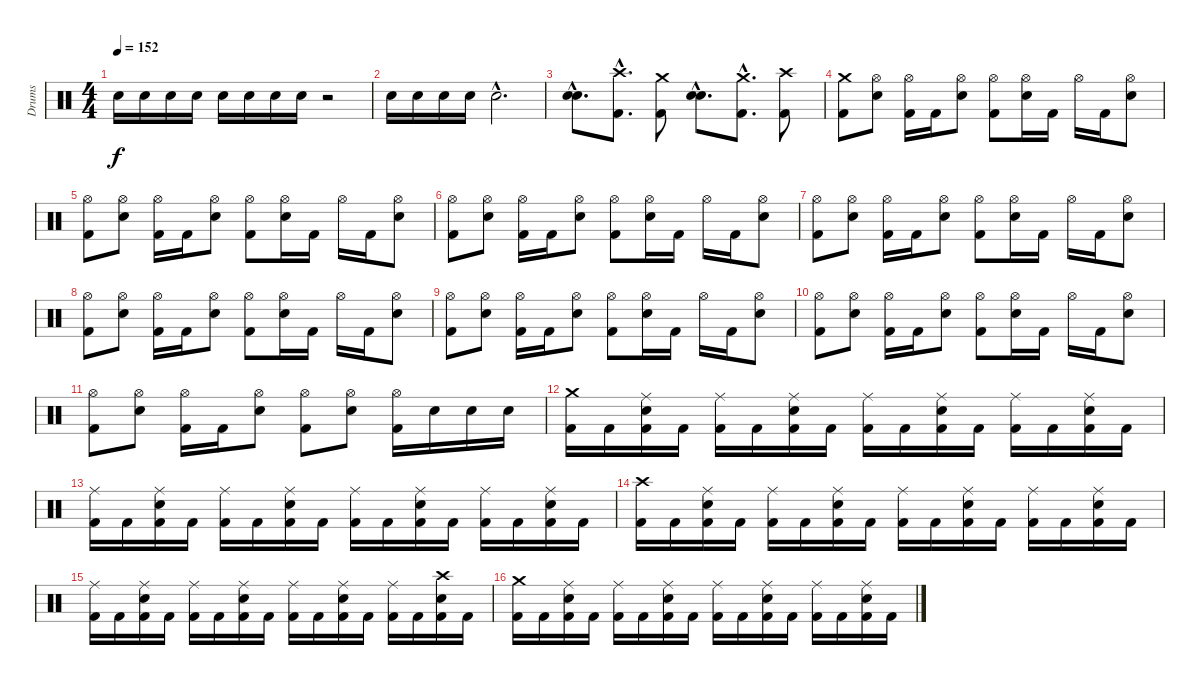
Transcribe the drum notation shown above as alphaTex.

\track ("Drums" "Drums") {instrument percussion}
\staff {score}
\articulation defaults
\ts (4 4)
\tempo 152
\clef neutral
\ks c "Snare (hit) 2".16{dy f} "Snare (hit) 2".16 "Snare (hit) 2".16 "Snare (hit) 2".16 "Snare (hit) 2".16 "Snare (hit) 2".16 "Snare (hit) 2".16 "Snare (hit) 2".16
r.2 |
"Snare (hit) 2".16 "Snare (hit) 2".16 "Snare (hit) 2".16 "Snare (hit) 2".16 "Snare (hit) 2"{hac}.2{d} |
("Snare (hit) 2"{hac} "Snare (hit) 2"{hac}).8{d bu 240} ("Crash high (hit)"{hac} "Kick (hit) 2"{hac}).8{d} ("Crash medium (hit)" "Kick (hit) 2").8 ("Snare (hit) 2"{hac} "Snare (hit) 2"{hac}).8{d bu 240} ("Crash medium (hit)"{hac} "Kick (hit) 2"{hac}).8{d} ("Crash high (hit)" "Kick (hit) 2").8 |
("Crash medium (hit)" "Kick (hit) 2").8 ("Hi-Hat (open)" "Snare (hit) 2").8 ("Hi-Hat (open)" "Kick (hit) 2").16 "Kick (hit) 2".16 ("Hi-Hat (open)" "Snare (hit) 2").8 ("Hi-Hat (open)" "Kick (hit) 2").8 ("Hi-Hat (open)" "Snare (hit) 2").16 "Kick (hit) 2".16 "Hi-Hat (open)".16 "Kick (hit) 2".16 ("Hi-Hat (open)" "Snare (hit) 2").8 |
("Hi-Hat (open)" "Kick (hit) 2").8 ("Hi-Hat (open)" "Snare (hit) 2").8 ("Hi-Hat (open)" "Kick (hit) 2").16 "Kick (hit) 2".16 ("Hi-Hat (open)" "Snare (hit) 2").8 ("Hi-Hat (open)" "Kick (hit) 2").8 ("Hi-Hat (open)" "Snare (hit) 2").16 "Kick (hit) 2".16 "Hi-Hat (open)".16 "Kick (hit) 2".16 ("Hi-Hat (open)" "Snare (hit) 2").8 |
("Hi-Hat (open)" "Kick (hit) 2").8 ("Hi-Hat (open)" "Snare (hit) 2").8 ("Hi-Hat (open)" "Kick (hit) 2").16 "Kick (hit) 2".16 ("Hi-Hat (open)" "Snare (hit) 2").8 ("Hi-Hat (open)" "Kick (hit) 2").8 ("Hi-Hat (open)" "Snare (hit) 2").16 "Kick (hit) 2".16 "Hi-Hat (open)".16 "Kick (hit) 2".16 ("Hi-Hat (open)" "Snare (hit) 2").8 |
("Hi-Hat (open)" "Kick (hit) 2").8 ("Hi-Hat (open)" "Snare (hit) 2").8 ("Hi-Hat (open)" "Kick (hit) 2").16 "Kick (hit) 2".16 ("Hi-Hat (open)" "Snare (hit) 2").8 ("Hi-Hat (open)" "Kick (hit) 2").8 ("Hi-Hat (open)" "Snare (hit) 2").16 "Kick (hit) 2".16 "Hi-Hat (open)".16 "Kick (hit) 2".16 ("Hi-Hat (open)" "Snare (hit) 2").8 |
("Hi-Hat (open)" "Kick (hit) 2").8 ("Hi-Hat (open)" "Snare (hit) 2").8 ("Hi-Hat (open)" "Kick (hit) 2").16 "Kick (hit) 2".16 ("Hi-Hat (open)" "Snare (hit) 2").8 ("Hi-Hat (open)" "Kick (hit) 2").8 ("Hi-Hat (open)" "Snare (hit) 2").16 "Kick (hit) 2".16 "Hi-Hat (open)".16 "Kick (hit) 2".16 ("Hi-Hat (open)" "Snare (hit) 2").8 |
("Hi-Hat (open)" "Kick (hit) 2").8 ("Hi-Hat (open)" "Snare (hit) 2").8 ("Hi-Hat (open)" "Kick (hit) 2").16 "Kick (hit) 2".16 ("Hi-Hat (open)" "Snare (hit) 2").8 ("Hi-Hat (open)" "Kick (hit) 2").8 ("Hi-Hat (open)" "Snare (hit) 2").16 "Kick (hit) 2".16 "Hi-Hat (open)".16 "Kick (hit) 2".16 ("Hi-Hat (open)" "Snare (hit) 2").8 |
("Hi-Hat (open)" "Kick (hit) 2").8 ("Hi-Hat (open)" "Snare (hit) 2").8 ("Hi-Hat (open)" "Kick (hit) 2").16 "Kick (hit) 2".16 ("Hi-Hat (open)" "Snare (hit) 2").8 ("Hi-Hat (open)" "Kick (hit) 2").8 ("Hi-Hat (open)" "Snare (hit) 2").16 "Kick (hit) 2".16 "Hi-Hat (open)".16 "Kick (hit) 2".16 ("Hi-Hat (open)" "Snare (hit) 2").8 |
("Hi-Hat (open)" "Kick (hit) 2").8 ("Hi-Hat (open)" "Snare (hit) 2").8 ("Hi-Hat (open)" "Kick (hit) 2").16 "Kick (hit) 2".16 ("Hi-Hat (open)" "Snare (hit) 2").8 ("Hi-Hat (open)" "Kick (hit) 2").8 ("Hi-Hat (open)" "Snare (hit) 2").8 ("Hi-Hat (open)" "Kick (hit) 2").16 "Snare (hit) 2".16 "Snare (hit) 2".16 "Snare (hit) 2".16 |
("Crash medium (hit)" "Kick (hit) 2").16 "Kick (hit) 2".16 ("Ride (middle)" "Snare (hit) 2" "Kick (hit) 2").16 "Kick (hit) 2".16 ("Ride (middle)" "Kick (hit) 2").16 "Kick (hit) 2".16 ("Ride (middle)" "Snare (hit) 2" "Kick (hit) 2").16 "Kick (hit) 2".16 ("Ride (middle)" "Kick (hit) 2").16 "Kick (hit) 2".16 ("Ride (middle)" "Snare (hit) 2" "Kick (hit) 2").16 "Kick (hit) 2".16 ("Ride (middle)" "Kick (hit) 2").16 "Kick (hit) 2".16 ("Ride (middle)" "Snare (hit) 2" "Kick (hit) 2").16 "Kick (hit) 2".16 |
("Ride (middle)" "Kick (hit) 2").16 "Kick (hit) 2".16 ("Ride (middle)" "Snare (hit) 2" "Kick (hit) 2").16 "Kick (hit) 2".16 ("Ride (middle)" "Kick (hit) 2").16 "Kick (hit) 2".16 ("Ride (middle)" "Snare (hit) 2" "Kick (hit) 2").16 "Kick (hit) 2".16 ("Ride (middle)" "Kick (hit) 2").16 "Kick (hit) 2".16 ("Ride (middle)" "Snare (hit) 2" "Kick (hit) 2").16 "Kick (hit) 2".16 ("Ride (middle)" "Kick (hit) 2").16 "Kick (hit) 2".16 ("Ride (middle)" "Snare (hit) 2" "Kick (hit) 2").16 "Kick (hit) 2".16 |
("Crash high (hit)" "Kick (hit) 2").16 "Kick (hit) 2".16 ("Ride (middle)" "Snare (hit) 2" "Kick (hit) 2").16 "Kick (hit) 2".16 ("Ride (middle)" "Kick (hit) 2").16 "Kick (hit) 2".16 ("Ride (middle)" "Snare (hit) 2" "Kick (hit) 2").16 "Kick (hit) 2".16 ("Ride (middle)" "Kick (hit) 2").16 "Kick (hit) 2".16 ("Ride (middle)" "Snare (hit) 2" "Kick (hit) 2").16 "Kick (hit) 2".16 ("Ride (middle)" "Kick (hit) 2").16 "Kick (hit) 2".16 ("Ride (middle)" "Snare (hit) 2" "Kick (hit) 2").16 "Kick (hit) 2".16 |
("Ride (middle)" "Kick (hit) 2").16 "Kick (hit) 2".16 ("Ride (middle)" "Snare (hit) 2" "Kick (hit) 2").16 "Kick (hit) 2".16 ("Ride (middle)" "Kick (hit) 2").16 "Kick (hit) 2".16 ("Ride (middle)" "Snare (hit) 2" "Kick (hit) 2").16 "Kick (hit) 2".16 ("Ride (middle)" "Kick (hit) 2").16 "Kick (hit) 2".16 ("Ride (middle)" "Snare (hit) 2" "Kick (hit) 2").16 "Kick (hit) 2".16 ("Ride (middle)" "Kick (hit) 2").16 "Kick (hit) 2".16 ("Crash high (hit)" "Snare (hit) 2" "Kick (hit) 2").16 "Kick (hit) 2".16 |
("Crash medium (hit)" "Kick (hit) 2").16 "Kick (hit) 2".16 ("Ride (middle)" "Snare (hit) 2" "Kick (hit) 2").16 "Kick (hit) 2".16 ("Ride (middle)" "Kick (hit) 2").16 "Kick (hit) 2".16 ("Ride (middle)" "Snare (hit) 2" "Kick (hit) 2").16 "Kick (hit) 2".16 ("Ride (middle)" "Kick (hit) 2").16 "Kick (hit) 2".16 ("Ride (middle)" "Snare (hit) 2" "Kick (hit) 2").16 "Kick (hit) 2".16 ("Ride (middle)" "Kick (hit) 2").16 "Kick (hit) 2".16 ("Ride (middle)" "Snare (hit) 2" "Kick (hit) 2").16 "Kick (hit) 2".16
